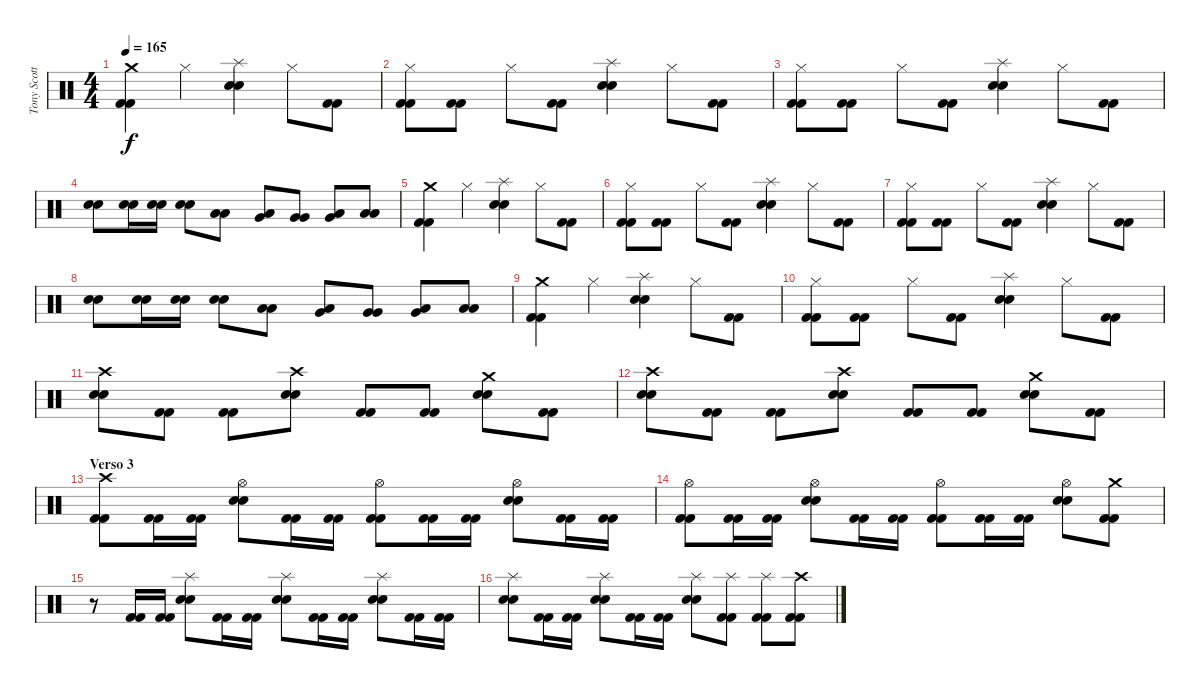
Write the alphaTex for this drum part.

\track ("Tony Scotto (bateria)" "Tony Scott") {instrument percussion}
\staff {score}
\articulation defaults
\ts (4 4)
\tempo 165
\clef neutral
\ks c
("Crash medium (hit)" "Kick (hit) 2" "Kick (hit) 2").4{dy f} "Hi-Hat (closed)".4 ("Splash (hit)" "Snare (hit) 2" "Snare (hit) 2").4 "Hi-Hat (closed)".8 ("Kick (hit) 2" "Kick (hit) 2").8 |
("Hi-Hat (closed)" "Kick (hit) 2" "Kick (hit) 2").8 ("Kick (hit) 2" "Kick (hit) 2").8 "Hi-Hat (closed)".8 ("Kick (hit) 2" "Kick (hit) 2").8 ("Splash (hit)" "Snare (hit) 2" "Snare (hit) 2").4 "Hi-Hat (closed)".8 ("Kick (hit) 2" "Kick (hit) 2").8 |
("Hi-Hat (closed)" "Kick (hit) 2" "Kick (hit) 2").8 ("Kick (hit) 2" "Kick (hit) 2").8 "Hi-Hat (closed)".8 ("Kick (hit) 2" "Kick (hit) 2").8 ("Splash (hit)" "Snare (hit) 2" "Snare (hit) 2").4 "Hi-Hat (closed)".8 ("Kick (hit) 2" "Kick (hit) 2").8 |
("Snare (hit) 2" "Snare (hit) 2").8 ("Snare (hit) 2" "Snare (hit) 2").16 ("Snare (hit) 2" "Snare (hit) 2").16 ("Snare (hit) 2" "Snare (hit) 2").8 ("Low Tom (hit)" "Low Tom (hit)").8 ("Low Tom (hit)" "Very Low Tom (hit)").8 ("Very Low Tom (hit)" "Very Low Tom (hit)").8 ("Low Floor Tom (hit)" "Very Low Tom (hit)").8 ("Low Floor Tom (hit)" "Low Floor Tom (hit)").8 |
("Crash medium (hit)" "Kick (hit) 2" "Kick (hit) 2").4 "Hi-Hat (closed)".4 ("Splash (hit)" "Snare (hit) 2" "Snare (hit) 2").4 "Hi-Hat (closed)".8 ("Kick (hit) 2" "Kick (hit) 2").8 |
("Hi-Hat (closed)" "Kick (hit) 2" "Kick (hit) 2").8 ("Kick (hit) 2" "Kick (hit) 2").8 "Hi-Hat (closed)".8 ("Kick (hit) 2" "Kick (hit) 2").8 ("Splash (hit)" "Snare (hit) 2" "Snare (hit) 2").4 "Hi-Hat (closed)".8 ("Kick (hit) 2" "Kick (hit) 2").8 |
("Hi-Hat (closed)" "Kick (hit) 2" "Kick (hit) 2").8 ("Kick (hit) 2" "Kick (hit) 2").8 "Hi-Hat (closed)".8 ("Kick (hit) 2" "Kick (hit) 2").8 ("Splash (hit)" "Snare (hit) 2" "Snare (hit) 2").4 "Hi-Hat (closed)".8 ("Kick (hit) 2" "Kick (hit) 2").8 |
("Snare (hit) 2" "Snare (hit) 2").8 ("Snare (hit) 2" "Snare (hit) 2").16 ("Snare (hit) 2" "Snare (hit) 2").16 ("Snare (hit) 2" "Snare (hit) 2").8 ("Low Tom (hit)" "Low Tom (hit)").8 ("Low Tom (hit)" "Very Low Tom (hit)").8 ("Very Low Tom (hit)" "Very Low Tom (hit)").8 ("Low Floor Tom (hit)" "Very Low Tom (hit)").8 ("Low Floor Tom (hit)" "Low Floor Tom (hit)").8 |
("Crash medium (hit)" "Kick (hit) 2" "Kick (hit) 2").4 "Hi-Hat (closed)".4 ("Splash (hit)" "Snare (hit) 2" "Snare (hit) 2").4 "Hi-Hat (closed)".8 ("Kick (hit) 2" "Kick (hit) 2").8 |
("Hi-Hat (closed)" "Kick (hit) 2" "Kick (hit) 2").8 ("Kick (hit) 2" "Kick (hit) 2").8 "Hi-Hat (closed)".8 ("Kick (hit) 2" "Kick (hit) 2").8 ("Splash (hit)" "Snare (hit) 2" "Snare (hit) 2").4 "Hi-Hat (closed)".8 ("Kick (hit) 2" "Kick (hit) 2").8 |
("Crash high (hit)" "Snare (hit) 2" "Snare (hit) 2").8 ("Kick (hit) 2" "Kick (hit) 2").8 ("Kick (hit) 2" "Kick (hit) 2").8 ("Crash high (hit)" "Snare (hit) 2" "Snare (hit) 2").8 ("Kick (hit) 2" "Kick (hit) 2").8 ("Kick (hit) 2" "Kick (hit) 2").8 ("Crash medium (hit)" "Snare (hit) 2" "Snare (hit) 2").8 ("Kick (hit) 2" "Kick (hit) 2").8 |
("Crash high (hit)" "Snare (hit) 2" "Snare (hit) 2").8 ("Kick (hit) 2" "Kick (hit) 2").8 ("Kick (hit) 2" "Kick (hit) 2").8 ("Crash high (hit)" "Snare (hit) 2" "Snare (hit) 2").8 ("Kick (hit) 2" "Kick (hit) 2").8 ("Kick (hit) 2" "Kick (hit) 2").8 ("Crash medium (hit)" "Snare (hit) 2" "Snare (hit) 2").8 ("Kick (hit) 2" "Kick (hit) 2").8 |
\section ("" "Verso 3")
("Crash high (hit)" "Kick (hit) 2" "Kick (hit) 2").8 ("Kick (hit) 2" "Kick (hit) 2").16 ("Kick (hit) 2" "Kick (hit) 2").16 ("Hi-Hat (open)" "Snare (hit) 2" "Snare (hit) 2").8 ("Kick (hit) 2" "Kick (hit) 2").16 ("Kick (hit) 2" "Kick (hit) 2").16 ("Hi-Hat (open)" "Kick (hit) 2" "Kick (hit) 2").8 ("Kick (hit) 2" "Kick (hit) 2").16 ("Kick (hit) 2" "Kick (hit) 2").16 ("Hi-Hat (open)" "Snare (hit) 2" "Snare (hit) 2").8 ("Kick (hit) 2" "Kick (hit) 2").16 ("Kick (hit) 2" "Kick (hit) 2").16 |
("Hi-Hat (open)" "Kick (hit) 2" "Kick (hit) 2").8 ("Kick (hit) 2" "Kick (hit) 2").16 ("Kick (hit) 2" "Kick (hit) 2").16 ("Hi-Hat (open)" "Snare (hit) 2" "Snare (hit) 2").8 ("Kick (hit) 2" "Kick (hit) 2").16 ("Kick (hit) 2" "Kick (hit) 2").16 ("Hi-Hat (open)" "Kick (hit) 2" "Kick (hit) 2").8 ("Kick (hit) 2" "Kick (hit) 2").16 ("Kick (hit) 2" "Kick (hit) 2").16 ("Hi-Hat (open)" "Snare (hit) 2" "Snare (hit) 2").8 ("Crash medium (hit)" "Kick (hit) 2" "Kick (hit) 2").8 |
r.8 ("Kick (hit) 2" "Kick (hit) 2").16 ("Kick (hit) 2" "Kick (hit) 2").16 ("Splash (hit)" "Snare (hit) 2" "Snare (hit) 2").8 ("Kick (hit) 2" "Kick (hit) 2").16 ("Kick (hit) 2" "Kick (hit) 2").16 ("Splash (hit)" "Snare (hit) 2" "Snare (hit) 2").8 ("Kick (hit) 2" "Kick (hit) 2").16 ("Kick (hit) 2" "Kick (hit) 2").16 ("Splash (hit)" "Snare (hit) 2" "Snare (hit) 2").8 ("Kick (hit) 2" "Kick (hit) 2").16 ("Kick (hit) 2" "Kick (hit) 2").16 |
("Splash (hit)" "Snare (hit) 2" "Snare (hit) 2").8 ("Kick (hit) 2" "Kick (hit) 2").16 ("Kick (hit) 2" "Kick (hit) 2").16 ("Splash (hit)" "Snare (hit) 2" "Snare (hit) 2").8 ("Kick (hit) 2" "Kick (hit) 2").16 ("Kick (hit) 2" "Kick (hit) 2").16 ("Splash (hit)" "Snare (hit) 2" "Snare (hit) 2").8 ("Splash (hit)" "Kick (hit) 2" "Kick (hit) 2").8 ("Splash (hit)" "Kick (hit) 2" "Kick (hit) 2").8 ("Crash high (hit)" "Kick (hit) 2" "Kick (hit) 2").8
